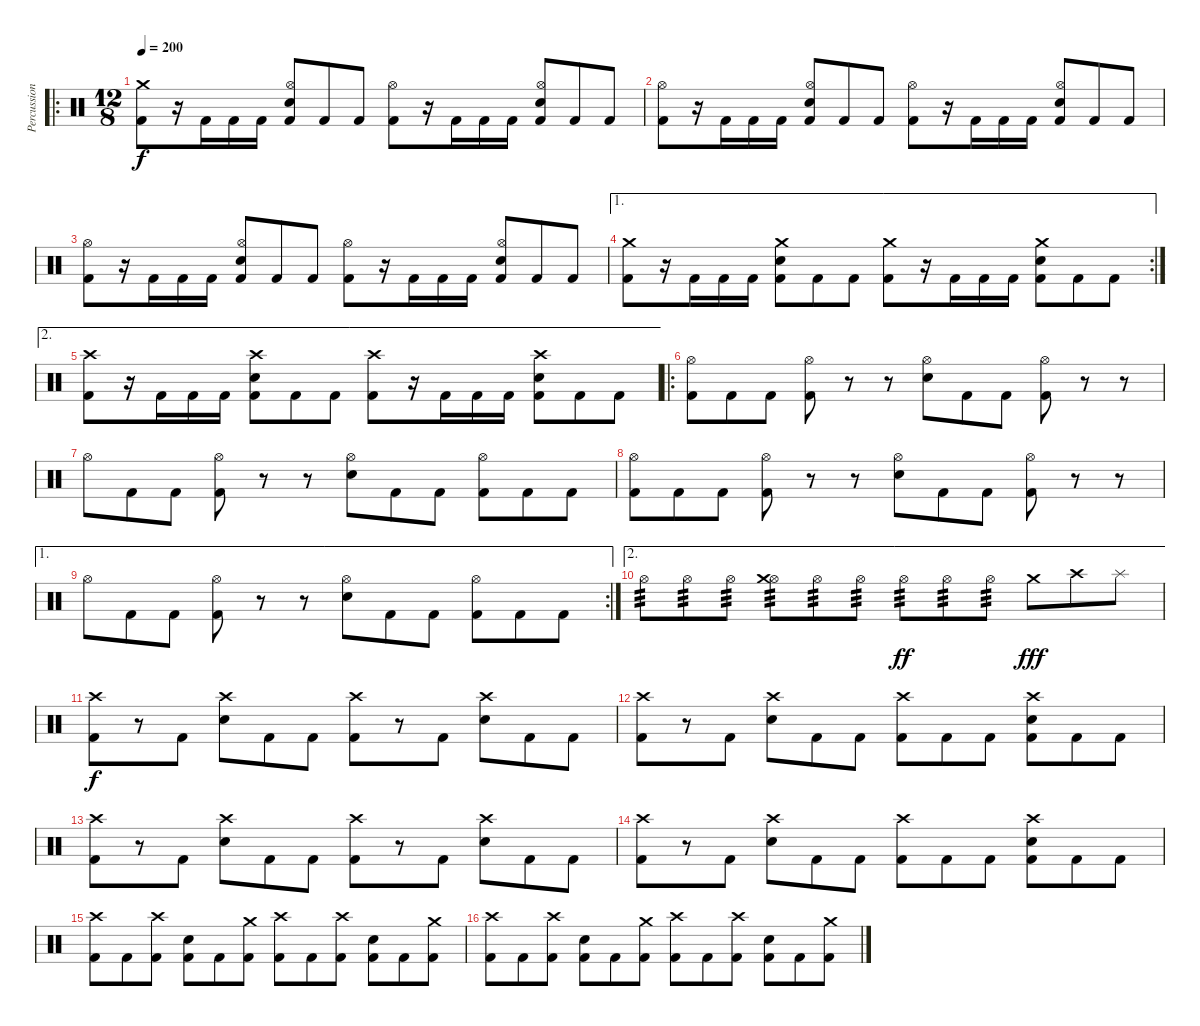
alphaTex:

\track ("Percussion" "Percussion") {instrument percussion}
\staff {score}
\articulation defaults
\ro
\ts (12 8)
\tempo 200
\clef neutral
\ks c
("Crash medium (hit)" "Kick (hit) 2").8{dy f} r.16 "Kick (hit) 2".16 "Kick (hit) 2".16 "Kick (hit) 2".16 ("Hi-Hat (open)" "Snare (hit) 2" "Kick (hit) 2").8 "Kick (hit) 2".8 "Kick (hit) 2".8 ("Hi-Hat (open)" "Kick (hit) 2").8 r.16 "Kick (hit) 2".16 "Kick (hit) 2".16 "Kick (hit) 2".16 ("Hi-Hat (open)" "Snare (hit) 2" "Kick (hit) 2").8 "Kick (hit) 2".8 "Kick (hit) 2".8 |
("Hi-Hat (open)" "Kick (hit) 2").8 r.16 "Kick (hit) 2".16 "Kick (hit) 2".16 "Kick (hit) 2".16 ("Hi-Hat (open)" "Snare (hit) 2" "Kick (hit) 2").8 "Kick (hit) 2".8 "Kick (hit) 2".8 ("Hi-Hat (open)" "Kick (hit) 2").8 r.16 "Kick (hit) 2".16 "Kick (hit) 2".16 "Kick (hit) 2".16 ("Hi-Hat (open)" "Snare (hit) 2" "Kick (hit) 2").8 "Kick (hit) 2".8 "Kick (hit) 2".8 |
("Hi-Hat (open)" "Kick (hit) 2").8 r.16 "Kick (hit) 2".16 "Kick (hit) 2".16 "Kick (hit) 2".16 ("Hi-Hat (open)" "Snare (hit) 2" "Kick (hit) 2").8 "Kick (hit) 2".8 "Kick (hit) 2".8 ("Hi-Hat (open)" "Kick (hit) 2").8 r.16 "Kick (hit) 2".16 "Kick (hit) 2".16 "Kick (hit) 2".16 ("Hi-Hat (open)" "Snare (hit) 2" "Kick (hit) 2").8 "Kick (hit) 2".8 "Kick (hit) 2".8 |
\ae 1
\rc 2
("Crash medium (hit)" "Kick (hit) 2").8 r.16 "Kick (hit) 2".16 "Kick (hit) 2".16 "Kick (hit) 2".16 ("Crash medium (hit)" "Snare (hit) 2" "Kick (hit) 2").8 "Kick (hit) 2".8 "Kick (hit) 2".8 ("Crash medium (hit)" "Kick (hit) 2").8 r.16 "Kick (hit) 2".16 "Kick (hit) 2".16 "Kick (hit) 2".16 ("Crash medium (hit)" "Snare (hit) 2" "Kick (hit) 2").8 "Kick (hit) 2".8 "Kick (hit) 2".8 |
\ae 2
("Crash high (hit)" "Kick (hit) 2").8 r.16 "Kick (hit) 2".16 "Kick (hit) 2".16 "Kick (hit) 2".16 ("Crash high (hit)" "Snare (hit) 2" "Kick (hit) 2").8 "Kick (hit) 2".8 "Kick (hit) 2".8 ("Crash high (hit)" "Kick (hit) 2").8 r.16 "Kick (hit) 2".16 "Kick (hit) 2".16 "Kick (hit) 2".16 ("Crash high (hit)" "Snare (hit) 2" "Kick (hit) 2").8 "Kick (hit) 2".8 "Kick (hit) 2".8 |
\ro
("Hi-Hat (open)" "Kick (hit) 2").8 "Kick (hit) 2".8 "Kick (hit) 2".8 ("Hi-Hat (open)" "Kick (hit) 2").8 r.8 r.8 ("Hi-Hat (open)" "Snare (hit) 2").8 "Kick (hit) 2".8 "Kick (hit) 2".8 ("Hi-Hat (open)" "Kick (hit) 2").8 r.8 r.8 |
"Hi-Hat (open)".8 "Kick (hit) 2".8 "Kick (hit) 2".8 ("Hi-Hat (open)" "Kick (hit) 2").8 r.8 r.8 ("Hi-Hat (open)" "Snare (hit) 2").8 "Kick (hit) 2".8 "Kick (hit) 2".8 ("Hi-Hat (open)" "Kick (hit) 2").8 "Kick (hit) 2".8 "Kick (hit) 2".8 |
("Hi-Hat (open)" "Kick (hit) 2").8 "Kick (hit) 2".8 "Kick (hit) 2".8 ("Hi-Hat (open)" "Kick (hit) 2").8 r.8 r.8 ("Hi-Hat (open)" "Snare (hit) 2").8 "Kick (hit) 2".8 "Kick (hit) 2".8 ("Hi-Hat (open)" "Kick (hit) 2").8 r.8 r.8 |
\ae 1
\rc 2 "Hi-Hat (open)".8 "Kick (hit) 2".8 "Kick (hit) 2".8
("Hi-Hat (open)" "Kick (hit) 2").8 r.8 r.8 ("Hi-Hat (open)" "Snare (hit) 2").8 "Kick (hit) 2".8 "Kick (hit) 2".8 ("Hi-Hat (open)" "Kick (hit) 2").8 "Kick (hit) 2".8 "Kick (hit) 2".8 |
\ae 2 "Hi-Hat (open)".8{tp 3} "Hi-Hat (open)".8{tp 3} "Hi-Hat (open)".8{tp 3}
("Hi-Hat (open)" "Crash medium (hit)").8{tp 3} "Hi-Hat (open)".8{tp 3} "Hi-Hat (open)".8{tp 3} "Hi-Hat (open)".8{tp 3 dy ff} "Hi-Hat (open)".8{tp 3} "Hi-Hat (open)".8{tp 3} "Crash medium (hit)".8{dy fff} "Crash high (hit)".8 "Splash (hit)".8 |
("Crash high (hit)" "Kick (hit) 2").8{dy f} r.8 "Kick (hit) 2".8 ("Crash high (hit)" "Snare (hit) 2").8 "Kick (hit) 2".8 "Kick (hit) 2".8 ("Crash high (hit)" "Kick (hit) 2").8 r.8 "Kick (hit) 2".8 ("Crash high (hit)" "Snare (hit) 2").8 "Kick (hit) 2".8 "Kick (hit) 2".8 |
("Crash high (hit)" "Kick (hit) 2").8 r.8 "Kick (hit) 2".8 ("Crash high (hit)" "Snare (hit) 2").8 "Kick (hit) 2".8 "Kick (hit) 2".8 ("Crash high (hit)" "Kick (hit) 2").8 "Kick (hit) 2".8 "Kick (hit) 2".8 ("Crash high (hit)" "Snare (hit) 2" "Kick (hit) 2").8 "Kick (hit) 2".8 "Kick (hit) 2".8 |
("Crash high (hit)" "Kick (hit) 2").8 r.8 "Kick (hit) 2".8 ("Crash high (hit)" "Snare (hit) 2").8 "Kick (hit) 2".8 "Kick (hit) 2".8 ("Crash high (hit)" "Kick (hit) 2").8 r.8 "Kick (hit) 2".8 ("Crash high (hit)" "Snare (hit) 2").8 "Kick (hit) 2".8 "Kick (hit) 2".8 |
("Crash high (hit)" "Kick (hit) 2").8 r.8 "Kick (hit) 2".8 ("Crash high (hit)" "Snare (hit) 2").8 "Kick (hit) 2".8 "Kick (hit) 2".8 ("Crash high (hit)" "Kick (hit) 2").8 "Kick (hit) 2".8 "Kick (hit) 2".8 ("Crash high (hit)" "Snare (hit) 2" "Kick (hit) 2").8 "Kick (hit) 2".8 "Kick (hit) 2".8 |
("Crash high (hit)" "Kick (hit) 2").8 "Kick (hit) 2".8 ("Crash high (hit)" "Kick (hit) 2").8 ("Snare (hit) 2" "Kick (hit) 2").8 "Kick (hit) 2".8 ("Crash medium (hit)" "Kick (hit) 2").8 ("Crash high (hit)" "Kick (hit) 2").8 "Kick (hit) 2".8 ("Crash high (hit)" "Kick (hit) 2").8 ("Snare (hit) 2" "Kick (hit) 2").8 "Kick (hit) 2".8 ("Crash medium (hit)" "Kick (hit) 2").8 |
("Crash high (hit)" "Kick (hit) 2").8 "Kick (hit) 2".8 ("Crash high (hit)" "Kick (hit) 2").8 ("Snare (hit) 2" "Kick (hit) 2").8 "Kick (hit) 2".8 ("Crash medium (hit)" "Kick (hit) 2").8 ("Crash high (hit)" "Kick (hit) 2").8 "Kick (hit) 2".8 ("Crash high (hit)" "Kick (hit) 2").8 ("Snare (hit) 2" "Kick (hit) 2").8 "Kick (hit) 2".8 ("Crash medium (hit)" "Kick (hit) 2").8
